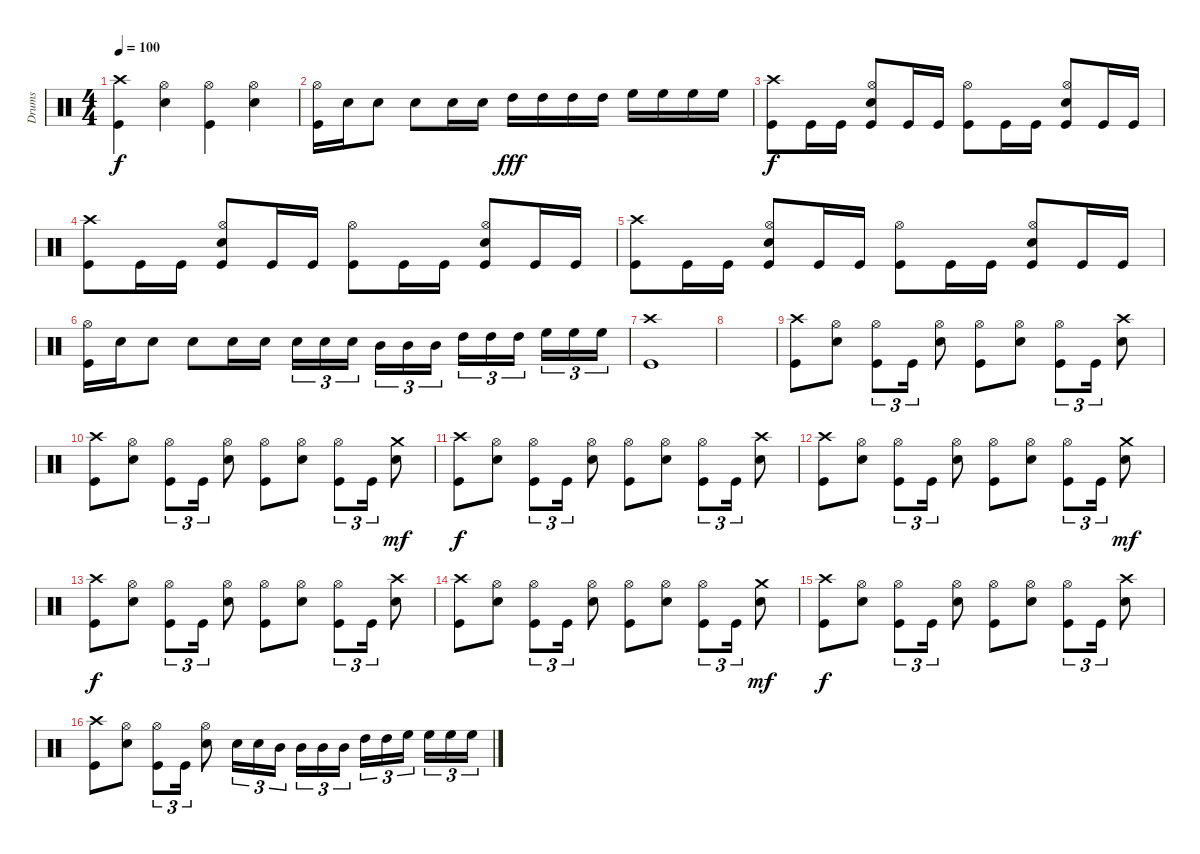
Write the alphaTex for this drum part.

\track ("Drums" "Drums") {instrument percussion}
\staff {score}
\articulation defaults
\ts (4 4)
\tempo 100
\clef neutral
\ks c
("Crash high (hit)" "Kick (hit)").4{dy f} ("Hi-Hat (open)" "Electric Snare (hit)").4 ("Hi-Hat (open)" "Kick (hit)").4 ("Hi-Hat (open)" "Electric Snare (hit)").4 |
("Hi-Hat (open)" "Kick (hit)").16 "Electric Snare (hit)".16 "Electric Snare (hit)".8 "Electric Snare (hit)".8 "Electric Snare (hit)".16 "Electric Snare (hit)".16 "High Tom (hit)".16{dy fff} "High Tom (hit)".16 "High Tom (hit)".16 "High Tom (hit)".16 "High Floor Tom (hit)".16 "High Floor Tom (hit)".16 "High Floor Tom (hit)".16 "High Floor Tom (hit)".16 |
("Crash high (hit)" "Kick (hit)").8{dy f} "Kick (hit)".16 "Kick (hit)".16 ("Hi-Hat (open)" "Electric Snare (hit)" "Kick (hit)").8 "Kick (hit)".16 "Kick (hit)".16 ("Hi-Hat (open)" "Kick (hit)").8 "Kick (hit)".16 "Kick (hit)".16 ("Hi-Hat (open)" "Electric Snare (hit)" "Kick (hit)").8 "Kick (hit)".16 "Kick (hit)".16 |
("Crash high (hit)" "Kick (hit)").8 "Kick (hit)".16 "Kick (hit)".16 ("Hi-Hat (open)" "Electric Snare (hit)" "Kick (hit)").8 "Kick (hit)".16 "Kick (hit)".16 ("Hi-Hat (open)" "Kick (hit)").8 "Kick (hit)".16 "Kick (hit)".16 ("Hi-Hat (open)" "Electric Snare (hit)" "Kick (hit)").8 "Kick (hit)".16 "Kick (hit)".16 |
("Crash high (hit)" "Kick (hit)").8 "Kick (hit)".16 "Kick (hit)".16 ("Hi-Hat (open)" "Electric Snare (hit)" "Kick (hit)").8 "Kick (hit)".16 "Kick (hit)".16 ("Hi-Hat (open)" "Kick (hit)").8 "Kick (hit)".16 "Kick (hit)".16 ("Hi-Hat (open)" "Electric Snare (hit)" "Kick (hit)").8 "Kick (hit)".16 "Kick (hit)".16 |
("Hi-Hat (open)" "Kick (hit)").16 "Electric Snare (hit)".16 "Electric Snare (hit)".8 "Electric Snare (hit)".8 "Electric Snare (hit)".16 "Electric Snare (hit)".16 "Electric Snare (hit)".16{tu (3 2)} "Electric Snare (hit)".16{tu (3 2)} "Electric Snare (hit)".16{tu (3 2)} "Mid Tom (hit)".16{tu (3 2)} "Mid Tom (hit)".16{tu (3 2)} "Mid Tom (hit)".16{tu (3 2)} "High Tom (hit)".16{tu (3 2)} "High Tom (hit)".16{tu (3 2)} "High Tom (hit)".16{tu (3 2)} "High Floor Tom (hit)".16{tu (3 2)} "High Floor Tom (hit)".16{tu (3 2)} "High Floor Tom (hit)".16{tu (3 2)} |
("Crash high (hit)" "Kick (hit)").1 |
|
("Crash high (hit)" "Kick (hit)").8 ("Hi-Hat (open)" "Electric Snare (hit)").8 ("Hi-Hat (open)" "Kick (hit)").8{tu (3 2)} "Kick (hit)".16{tu (3 2)} ("Hi-Hat (open)" "Electric Snare (hit)").8 ("Hi-Hat (open)" "Kick (hit)").8 ("Hi-Hat (open)" "Electric Snare (hit)").8 ("Hi-Hat (open)" "Kick (hit)").8{tu (3 2)} "Kick (hit)".16{tu (3 2)} ("Crash high (hit)" "Electric Snare (hit)").8 |
("Crash high (hit)" "Kick (hit)").8 ("Hi-Hat (open)" "Electric Snare (hit)").8 ("Hi-Hat (open)" "Kick (hit)").8{tu (3 2)} "Kick (hit)".16{tu (3 2)} ("Hi-Hat (open)" "Electric Snare (hit)").8 ("Hi-Hat (open)" "Kick (hit)").8 ("Hi-Hat (open)" "Electric Snare (hit)").8 ("Hi-Hat (open)" "Kick (hit)").8{tu (3 2)} "Kick (hit)".16{tu (3 2)} ("Crash medium (hit)" "Electric Snare (hit)").8{dy mf} |
("Crash high (hit)" "Kick (hit)").8{dy f} ("Hi-Hat (open)" "Electric Snare (hit)").8 ("Hi-Hat (open)" "Kick (hit)").8{tu (3 2)} "Kick (hit)".16{tu (3 2)} ("Hi-Hat (open)" "Electric Snare (hit)").8 ("Hi-Hat (open)" "Kick (hit)").8 ("Hi-Hat (open)" "Electric Snare (hit)").8 ("Hi-Hat (open)" "Kick (hit)").8{tu (3 2)} "Kick (hit)".16{tu (3 2)} ("Crash high (hit)" "Electric Snare (hit)").8 |
("Crash high (hit)" "Kick (hit)").8 ("Hi-Hat (open)" "Electric Snare (hit)").8 ("Hi-Hat (open)" "Kick (hit)").8{tu (3 2)} "Kick (hit)".16{tu (3 2)} ("Hi-Hat (open)" "Electric Snare (hit)").8 ("Hi-Hat (open)" "Kick (hit)").8 ("Hi-Hat (open)" "Electric Snare (hit)").8 ("Hi-Hat (open)" "Kick (hit)").8{tu (3 2)} "Kick (hit)".16{tu (3 2)} ("Crash medium (hit)" "Electric Snare (hit)").8{dy mf} |
("Crash high (hit)" "Kick (hit)").8{dy f} ("Hi-Hat (open)" "Electric Snare (hit)").8 ("Hi-Hat (open)" "Kick (hit)").8{tu (3 2)} "Kick (hit)".16{tu (3 2)} ("Hi-Hat (open)" "Electric Snare (hit)").8 ("Hi-Hat (open)" "Kick (hit)").8 ("Hi-Hat (open)" "Electric Snare (hit)").8 ("Hi-Hat (open)" "Kick (hit)").8{tu (3 2)} "Kick (hit)".16{tu (3 2)} ("Crash high (hit)" "Electric Snare (hit)").8 |
("Crash high (hit)" "Kick (hit)").8 ("Hi-Hat (open)" "Electric Snare (hit)").8 ("Hi-Hat (open)" "Kick (hit)").8{tu (3 2)} "Kick (hit)".16{tu (3 2)} ("Hi-Hat (open)" "Electric Snare (hit)").8 ("Hi-Hat (open)" "Kick (hit)").8 ("Hi-Hat (open)" "Electric Snare (hit)").8 ("Hi-Hat (open)" "Kick (hit)").8{tu (3 2)} "Kick (hit)".16{tu (3 2)} ("Crash medium (hit)" "Electric Snare (hit)").8{dy mf} |
("Crash high (hit)" "Kick (hit)").8{dy f} ("Hi-Hat (open)" "Electric Snare (hit)").8 ("Hi-Hat (open)" "Kick (hit)").8{tu (3 2)} "Kick (hit)".16{tu (3 2)} ("Hi-Hat (open)" "Electric Snare (hit)").8 ("Hi-Hat (open)" "Kick (hit)").8 ("Hi-Hat (open)" "Electric Snare (hit)").8 ("Hi-Hat (open)" "Kick (hit)").8{tu (3 2)} "Kick (hit)".16{tu (3 2)} ("Crash high (hit)" "Electric Snare (hit)").8 |
("Crash high (hit)" "Kick (hit)").8 ("Hi-Hat (open)" "Electric Snare (hit)").8 ("Hi-Hat (open)" "Kick (hit)").8{tu (3 2)} "Kick (hit)".16{tu (3 2)} ("Hi-Hat (open)" "Electric Snare (hit)").8 "Electric Snare (hit)".16{tu (3 2)} "Electric Snare (hit)".16{tu (3 2)} "Mid Tom (hit)".16{tu (3 2)} "Mid Tom (hit)".16{tu (3 2)} "Mid Tom (hit)".16{tu (3 2)} "Mid Tom (hit)".16{tu (3 2)} "High Tom (hit)".16{tu (3 2)} "High Tom (hit)".16{tu (3 2)} "High Floor Tom (hit)".16{tu (3 2)} "High Floor Tom (hit)".16{tu (3 2)} "High Floor Tom (hit)".16{tu (3 2)} "High Floor Tom (hit)".16{tu (3 2)}
